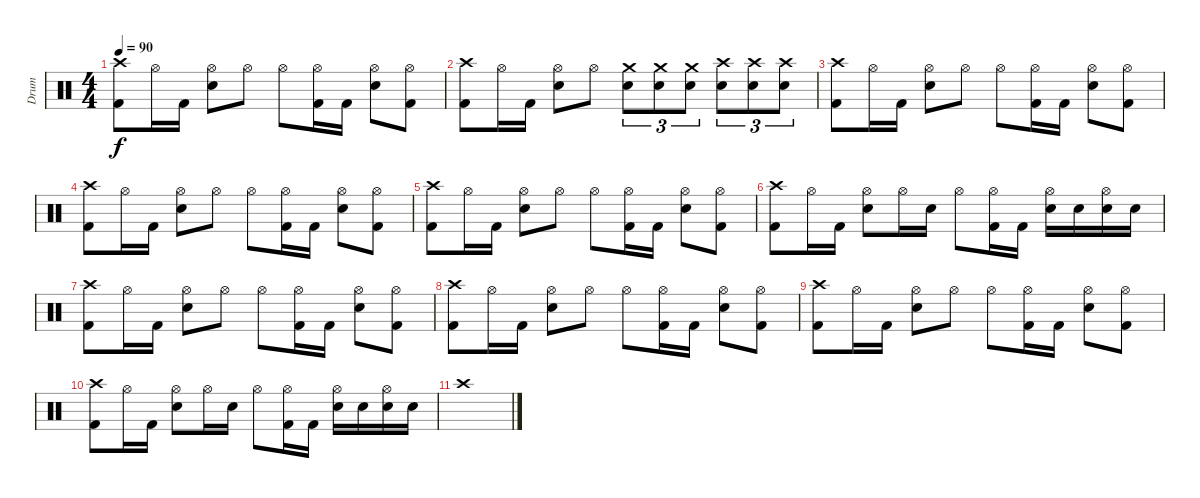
\track ("Drum" "Drum") {instrument percussion}
\staff {score}
\articulation defaults
\ts (4 4)
\tempo 90
\clef neutral
\ks aminor
("Crash high (hit)" "Kick (hit) 2").8{dy f} "Hi-Hat (open)".16 "Kick (hit) 2".16 ("Hi-Hat (open)" "Electric Snare (hit)").8 "Hi-Hat (open)".8 "Hi-Hat (open)".8 ("Hi-Hat (open)" "Kick (hit) 2").16 "Kick (hit) 2".16 ("Hi-Hat (open)" "Electric Snare (hit)").8 ("Hi-Hat (open)" "Kick (hit) 2").8 |
\ks c
("Crash high (hit)" "Kick (hit) 2").8 "Hi-Hat (open)".16 "Kick (hit) 2".16 ("Hi-Hat (open)" "Electric Snare (hit)").8 "Hi-Hat (open)".8 ("Crash medium (hit)" "Electric Snare (hit)").8{tu (3 2)} ("Crash medium (hit)" "Electric Snare (hit)").8{tu (3 2)} ("Crash medium (hit)" "Electric Snare (hit)").8{tu (3 2)} ("Crash high (hit)" "Electric Snare (hit)").8{tu (3 2)} ("Crash high (hit)" "Electric Snare (hit)").8{tu (3 2)} ("Crash high (hit)" "Electric Snare (hit)").8{tu (3 2)} |
\ks aminor
("Crash high (hit)" "Kick (hit) 2").8 "Hi-Hat (open)".16 "Kick (hit) 2".16 ("Hi-Hat (open)" "Electric Snare (hit)").8 "Hi-Hat (open)".8 "Hi-Hat (open)".8 ("Hi-Hat (open)" "Kick (hit) 2").16 "Kick (hit) 2".16 ("Hi-Hat (open)" "Electric Snare (hit)").8 ("Hi-Hat (open)" "Kick (hit) 2").8 |
("Crash high (hit)" "Kick (hit) 2").8 "Hi-Hat (open)".16 "Kick (hit) 2".16 ("Hi-Hat (open)" "Electric Snare (hit)").8 "Hi-Hat (open)".8 "Hi-Hat (open)".8 ("Hi-Hat (open)" "Kick (hit) 2").16 "Kick (hit) 2".16 ("Hi-Hat (open)" "Electric Snare (hit)").8 ("Hi-Hat (open)" "Kick (hit) 2").8 |
("Crash high (hit)" "Kick (hit) 2").8 "Hi-Hat (open)".16 "Kick (hit) 2".16 ("Hi-Hat (open)" "Electric Snare (hit)").8 "Hi-Hat (open)".8 "Hi-Hat (open)".8 ("Hi-Hat (open)" "Kick (hit) 2").16 "Kick (hit) 2".16 ("Hi-Hat (open)" "Electric Snare (hit)").8 ("Hi-Hat (open)" "Kick (hit) 2").8 |
\ks c
("Crash high (hit)" "Kick (hit) 2").8 "Hi-Hat (open)".16 "Kick (hit) 2".16 ("Hi-Hat (open)" "Electric Snare (hit)").8 "Hi-Hat (open)".16 "Electric Snare (hit)".16 "Hi-Hat (open)".8 ("Hi-Hat (open)" "Kick (hit) 2").16 "Kick (hit) 2".16 ("Hi-Hat (open)" "Electric Snare (hit)").16 "Electric Snare (hit)".16 ("Hi-Hat (open)" "Electric Snare (hit)").16 "Electric Snare (hit)".16 |
\ks aminor
("Crash high (hit)" "Kick (hit) 2").8 "Hi-Hat (open)".16 "Kick (hit) 2".16 ("Hi-Hat (open)" "Electric Snare (hit)").8 "Hi-Hat (open)".8 "Hi-Hat (open)".8 ("Hi-Hat (open)" "Kick (hit) 2").16 "Kick (hit) 2".16 ("Hi-Hat (open)" "Electric Snare (hit)").8 ("Hi-Hat (open)" "Kick (hit) 2").8 |
("Crash high (hit)" "Kick (hit) 2").8 "Hi-Hat (open)".16 "Kick (hit) 2".16 ("Hi-Hat (open)" "Electric Snare (hit)").8 "Hi-Hat (open)".8 "Hi-Hat (open)".8 ("Hi-Hat (open)" "Kick (hit) 2").16 "Kick (hit) 2".16 ("Hi-Hat (open)" "Electric Snare (hit)").8 ("Hi-Hat (open)" "Kick (hit) 2").8 |
("Crash high (hit)" "Kick (hit) 2").8 "Hi-Hat (open)".16 "Kick (hit) 2".16 ("Hi-Hat (open)" "Electric Snare (hit)").8 "Hi-Hat (open)".8 "Hi-Hat (open)".8 ("Hi-Hat (open)" "Kick (hit) 2").16 "Kick (hit) 2".16 ("Hi-Hat (open)" "Electric Snare (hit)").8 ("Hi-Hat (open)" "Kick (hit) 2").8 |
\ks c
("Crash high (hit)" "Kick (hit) 2").8 "Hi-Hat (open)".16 "Kick (hit) 2".16 ("Hi-Hat (open)" "Electric Snare (hit)").8 "Hi-Hat (open)".16 "Electric Snare (hit)".16 "Hi-Hat (open)".8 ("Hi-Hat (open)" "Kick (hit) 2").16 "Kick (hit) 2".16 ("Hi-Hat (open)" "Electric Snare (hit)").16 "Electric Snare (hit)".16 ("Hi-Hat (open)" "Electric Snare (hit)").16 "Electric Snare (hit)".16 |
"Crash high (hit)".1
